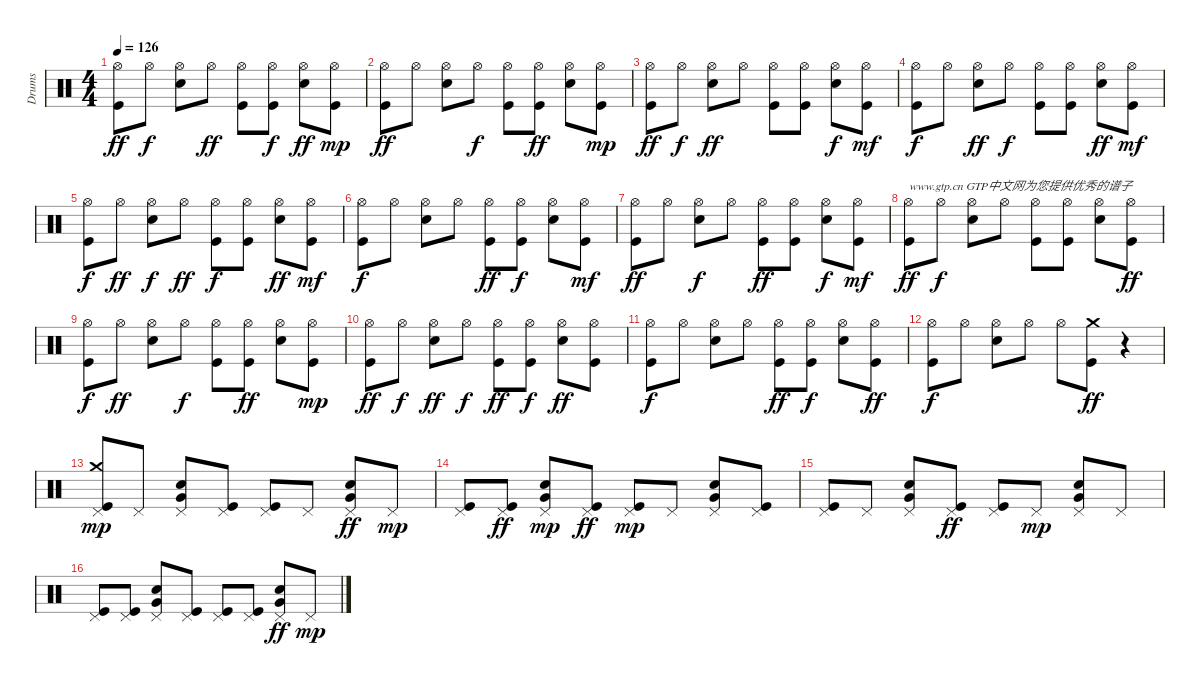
\track ("Drums" "Drums") {instrument percussion}
\staff {score}
\articulation defaults
\ts (4 4)
\tempo 126
\clef neutral
\ks c
("Hi-Hat (open)" "Kick (hit)").8{dy ff} "Hi-Hat (open)".8{dy f} ("Electric Snare (hit)" "Hi-Hat (open)").8 "Hi-Hat (open)".8{dy ff} ("Kick (hit)" "Hi-Hat (open)").8 ("Hi-Hat (open)" "Kick (hit)").8{dy f} ("Electric Snare (hit)" "Hi-Hat (open)").8{dy ff} ("Kick (hit)" "Hi-Hat (open)").8{dy mp} |
("Hi-Hat (open)" "Kick (hit)").8{dy ff} "Hi-Hat (open)".8 ("Electric Snare (hit)" "Hi-Hat (open)").8 "Hi-Hat (open)".8{dy f} ("Kick (hit)" "Hi-Hat (open)").8 ("Kick (hit)" "Hi-Hat (open)").8{dy ff} ("Electric Snare (hit)" "Hi-Hat (open)").8 ("Kick (hit)" "Hi-Hat (open)").8{dy mp} |
("Hi-Hat (open)" "Kick (hit)").8{dy ff} "Hi-Hat (open)".8{dy f} ("Electric Snare (hit)" "Hi-Hat (open)").8{dy ff} "Hi-Hat (open)".8 ("Kick (hit)" "Hi-Hat (open)").8 ("Kick (hit)" "Hi-Hat (open)").8 ("Electric Snare (hit)" "Hi-Hat (open)").8{dy f} ("Kick (hit)" "Hi-Hat (open)").8{dy mf} |
("Hi-Hat (open)" "Kick (hit)").8{dy f} "Hi-Hat (open)".8 ("Electric Snare (hit)" "Hi-Hat (open)").8{dy ff} "Hi-Hat (open)".8{dy f} ("Kick (hit)" "Hi-Hat (open)").8 ("Kick (hit)" "Hi-Hat (open)").8 ("Electric Snare (hit)" "Hi-Hat (open)").8{dy ff} ("Kick (hit)" "Hi-Hat (open)").8{dy mf} |
("Hi-Hat (open)" "Kick (hit)").8{dy f} "Hi-Hat (open)".8{dy ff} ("Electric Snare (hit)" "Hi-Hat (open)").8{dy f} "Hi-Hat (open)".8{dy ff} ("Kick (hit)" "Hi-Hat (open)").8{dy f} ("Kick (hit)" "Hi-Hat (open)").8 ("Electric Snare (hit)" "Hi-Hat (open)").8{dy ff} ("Kick (hit)" "Hi-Hat (open)").8{dy mf} |
("Hi-Hat (open)" "Kick (hit)").8{dy f} "Hi-Hat (open)".8 ("Electric Snare (hit)" "Hi-Hat (open)").8 "Hi-Hat (open)".8 ("Kick (hit)" "Hi-Hat (open)").8{dy ff} ("Kick (hit)" "Hi-Hat (open)").8{dy f} ("Electric Snare (hit)" "Hi-Hat (open)").8 ("Kick (hit)" "Hi-Hat (open)").8{dy mf} |
("Hi-Hat (open)" "Kick (hit)").8{dy ff} "Hi-Hat (open)".8 ("Electric Snare (hit)" "Hi-Hat (open)").8{dy f} "Hi-Hat (open)".8 ("Kick (hit)" "Hi-Hat (open)").8{dy ff} ("Kick (hit)" "Hi-Hat (open)").8 ("Electric Snare (hit)" "Hi-Hat (open)").8{dy f} ("Kick (hit)" "Hi-Hat (open)").8{dy mf} |
("Hi-Hat (open)" "Kick (hit)").8{txt "www.gtp.cn GTP中文网为您提供优秀的谱子" dy ff} "Hi-Hat (open)".8{dy f} ("Electric Snare (hit)" "Hi-Hat (open)").8 "Hi-Hat (open)".8 ("Kick (hit)" "Hi-Hat (open)").8 ("Kick (hit)" "Hi-Hat (open)").8 ("Electric Snare (hit)" "Hi-Hat (open)").8 ("Kick (hit)" "Hi-Hat (open)").8{dy ff} |
("Hi-Hat (open)" "Kick (hit)").8{dy f} "Hi-Hat (open)".8{dy ff} ("Electric Snare (hit)" "Hi-Hat (open)").8 "Hi-Hat (open)".8{dy f} ("Kick (hit)" "Hi-Hat (open)").8 ("Kick (hit)" "Hi-Hat (open)").8{dy ff} ("Electric Snare (hit)" "Hi-Hat (open)").8 ("Kick (hit)" "Hi-Hat (open)").8{dy mp} |
("Hi-Hat (open)" "Kick (hit)").8{dy ff} "Hi-Hat (open)".8{dy f} ("Electric Snare (hit)" "Hi-Hat (open)").8{dy ff} "Hi-Hat (open)".8{dy f} ("Kick (hit)" "Hi-Hat (open)").8{dy ff} ("Kick (hit)" "Hi-Hat (open)").8{dy f} ("Electric Snare (hit)" "Hi-Hat (open)").8{dy ff} ("Kick (hit)" "Hi-Hat (open)").8 |
("Hi-Hat (open)" "Kick (hit)").8{dy f} "Hi-Hat (open)".8 ("Electric Snare (hit)" "Hi-Hat (open)").8 "Hi-Hat (open)".8 ("Kick (hit)" "Hi-Hat (open)").8{dy ff} ("Kick (hit)" "Hi-Hat (open)").8{dy f} ("Electric Snare (hit)" "Hi-Hat (open)").8 ("Kick (hit)" "Hi-Hat (open)").8{dy ff} |
("Kick (hit)" "Hi-Hat (open)").8{dy f} "Hi-Hat (open)".8 ("Electric Snare (hit)" "Hi-Hat (open)").8 "Hi-Hat (open)".8 "Hi-Hat (open)".8 ("Kick (hit)" "Crash medium (hit)").8{dy ff} r.4 |
("Pedal Hi-Hat (hit)" "Crash medium (hit)" "Kick (hit)").8{dy mp} "Pedal Hi-Hat (hit)".8 ("Pedal Hi-Hat (hit)" "Very Low Tom (hit)" "Electric Snare (hit)").8 ("Pedal Hi-Hat (hit)" "Kick (hit)").8 ("Pedal Hi-Hat (hit)" "Kick (hit)").8 "Pedal Hi-Hat (hit)".8 ("Pedal Hi-Hat (hit)" "Very Low Tom (hit)" "Electric Snare (hit)").8{dy ff} "Pedal Hi-Hat (hit)".8{dy mp} |
("Pedal Hi-Hat (hit)" "Kick (hit)").8 ("Pedal Hi-Hat (hit)" "Kick (hit)").8{dy ff} ("Very Low Tom (hit)" "Pedal Hi-Hat (hit)" "Electric Snare (hit)").8{dy mp} ("Pedal Hi-Hat (hit)" "Kick (hit)").8{dy ff} ("Pedal Hi-Hat (hit)" "Kick (hit)").8{dy mp} "Pedal Hi-Hat (hit)".8 ("Pedal Hi-Hat (hit)" "Very Low Tom (hit)" "Electric Snare (hit)").8 ("Kick (hit)" "Pedal Hi-Hat (hit)").8 |
("Pedal Hi-Hat (hit)" "Kick (hit)").8 "Pedal Hi-Hat (hit)".8 ("Pedal Hi-Hat (hit)" "Electric Snare (hit)" "Very Low Tom (hit)").8 ("Pedal Hi-Hat (hit)" "Kick (hit)").8{dy ff} ("Pedal Hi-Hat (hit)" "Kick (hit)").8 "Pedal Hi-Hat (hit)".8{dy mp} ("Pedal Hi-Hat (hit)" "Very Low Tom (hit)" "Electric Snare (hit)").8 "Pedal Hi-Hat (hit)".8 |
("Pedal Hi-Hat (hit)" "Kick (hit)").8 ("Pedal Hi-Hat (hit)" "Kick (hit)").8 ("Very Low Tom (hit)" "Pedal Hi-Hat (hit)" "Electric Snare (hit)").8 ("Pedal Hi-Hat (hit)" "Kick (hit)").8 ("Pedal Hi-Hat (hit)" "Kick (hit)").8 ("Kick (hit)" "Pedal Hi-Hat (hit)").8 ("Pedal Hi-Hat (hit)" "Very Low Tom (hit)" "Electric Snare (hit)").8{dy ff} "Pedal Hi-Hat (hit)".8{dy mp}
